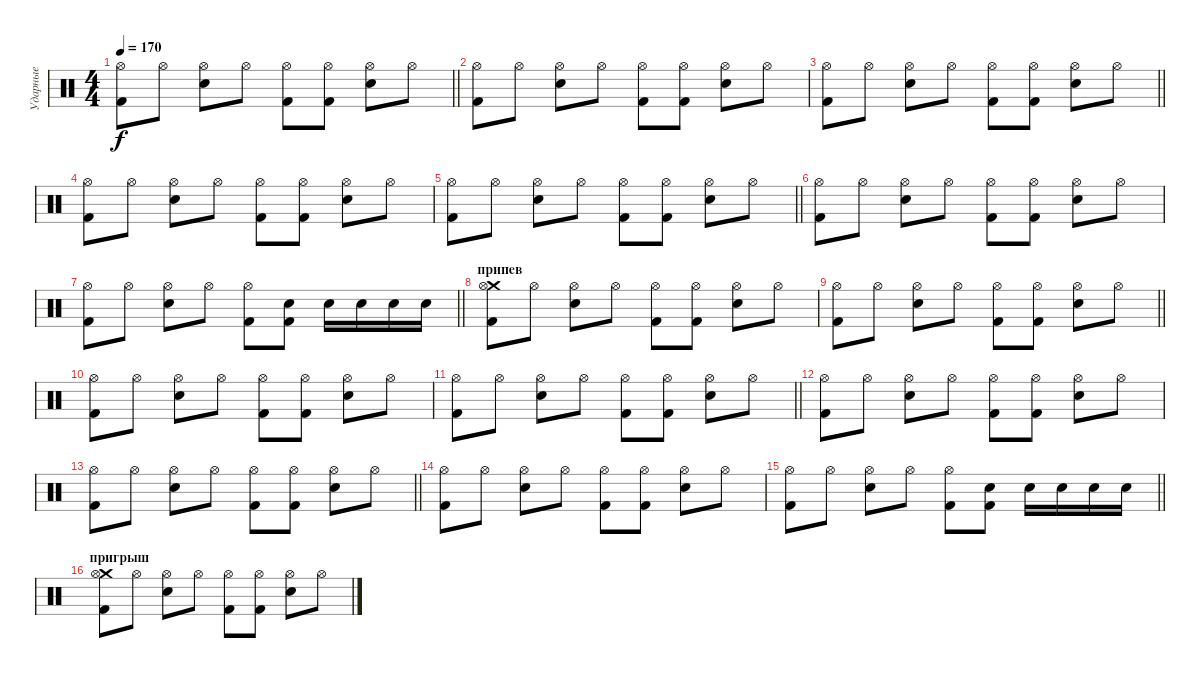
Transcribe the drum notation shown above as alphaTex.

\track ("Ударные" "Ударные") {instrument percussion}
\staff {score}
\articulation defaults
\ts (4 4)
\tempo 170
\clef neutral
\barLineRight lightlight
\ks c
("Hi-Hat (open)" "Kick (hit) 2").8{dy f} "Hi-Hat (open)".8 ("Hi-Hat (open)" "Electric Snare (hit)").8 "Hi-Hat (open)".8 ("Hi-Hat (open)" "Kick (hit) 2").8 ("Hi-Hat (open)" "Kick (hit) 2").8 ("Hi-Hat (open)" "Electric Snare (hit)").8 "Hi-Hat (open)".8 |
("Hi-Hat (open)" "Kick (hit) 2").8 "Hi-Hat (open)".8 ("Hi-Hat (open)" "Electric Snare (hit)").8 "Hi-Hat (open)".8 ("Hi-Hat (open)" "Kick (hit) 2").8 ("Hi-Hat (open)" "Kick (hit) 2").8 ("Hi-Hat (open)" "Electric Snare (hit)").8 "Hi-Hat (open)".8 |
\barLineRight lightlight
("Hi-Hat (open)" "Kick (hit) 2").8 "Hi-Hat (open)".8 ("Hi-Hat (open)" "Electric Snare (hit)").8 "Hi-Hat (open)".8 ("Hi-Hat (open)" "Kick (hit) 2").8 ("Hi-Hat (open)" "Kick (hit) 2").8 ("Hi-Hat (open)" "Electric Snare (hit)").8 "Hi-Hat (open)".8 |
("Hi-Hat (open)" "Kick (hit) 2").8 "Hi-Hat (open)".8 ("Hi-Hat (open)" "Electric Snare (hit)").8 "Hi-Hat (open)".8 ("Hi-Hat (open)" "Kick (hit) 2").8 ("Hi-Hat (open)" "Kick (hit) 2").8 ("Hi-Hat (open)" "Electric Snare (hit)").8 "Hi-Hat (open)".8 |
\barLineRight lightlight
("Hi-Hat (open)" "Kick (hit) 2").8 "Hi-Hat (open)".8 ("Hi-Hat (open)" "Electric Snare (hit)").8 "Hi-Hat (open)".8 ("Hi-Hat (open)" "Kick (hit) 2").8 ("Hi-Hat (open)" "Kick (hit) 2").8 ("Hi-Hat (open)" "Electric Snare (hit)").8 "Hi-Hat (open)".8 |
("Hi-Hat (open)" "Kick (hit) 2").8 "Hi-Hat (open)".8 ("Hi-Hat (open)" "Electric Snare (hit)").8 "Hi-Hat (open)".8 ("Hi-Hat (open)" "Kick (hit) 2").8 ("Hi-Hat (open)" "Kick (hit) 2").8 ("Hi-Hat (open)" "Electric Snare (hit)").8 "Hi-Hat (open)".8 |
\barLineRight lightlight
("Hi-Hat (open)" "Kick (hit) 2").8 "Hi-Hat (open)".8 ("Hi-Hat (open)" "Electric Snare (hit)").8 "Hi-Hat (open)".8 ("Hi-Hat (open)" "Kick (hit) 2").8 ("Electric Snare (hit)" "Kick (hit) 2").8 "Electric Snare (hit)".16 "Electric Snare (hit)".16 "Electric Snare (hit)".16 "Electric Snare (hit)".16 |
\section ("" "припев")
("Crash medium (hit)" "Hi-Hat (open)" "Kick (hit) 2").8 "Hi-Hat (open)".8 ("Hi-Hat (open)" "Electric Snare (hit)").8 "Hi-Hat (open)".8 ("Hi-Hat (open)" "Kick (hit) 2").8 ("Hi-Hat (open)" "Kick (hit) 2").8 ("Hi-Hat (open)" "Electric Snare (hit)").8 "Hi-Hat (open)".8 |
\barLineRight lightlight
("Hi-Hat (open)" "Kick (hit) 2").8 "Hi-Hat (open)".8 ("Hi-Hat (open)" "Electric Snare (hit)").8 "Hi-Hat (open)".8 ("Hi-Hat (open)" "Kick (hit) 2").8 ("Hi-Hat (open)" "Kick (hit) 2").8 ("Hi-Hat (open)" "Electric Snare (hit)").8 "Hi-Hat (open)".8 |
("Hi-Hat (open)" "Kick (hit) 2").8 "Hi-Hat (open)".8 ("Hi-Hat (open)" "Electric Snare (hit)").8 "Hi-Hat (open)".8 ("Hi-Hat (open)" "Kick (hit) 2").8 ("Hi-Hat (open)" "Kick (hit) 2").8 ("Hi-Hat (open)" "Electric Snare (hit)").8 "Hi-Hat (open)".8 |
\barLineRight lightlight
("Hi-Hat (open)" "Kick (hit) 2").8 "Hi-Hat (open)".8 ("Hi-Hat (open)" "Electric Snare (hit)").8 "Hi-Hat (open)".8 ("Hi-Hat (open)" "Kick (hit) 2").8 ("Hi-Hat (open)" "Kick (hit) 2").8 ("Hi-Hat (open)" "Electric Snare (hit)").8 "Hi-Hat (open)".8 |
("Hi-Hat (open)" "Kick (hit) 2").8 "Hi-Hat (open)".8 ("Hi-Hat (open)" "Electric Snare (hit)").8 "Hi-Hat (open)".8 ("Hi-Hat (open)" "Kick (hit) 2").8 ("Hi-Hat (open)" "Kick (hit) 2").8 ("Hi-Hat (open)" "Electric Snare (hit)").8 "Hi-Hat (open)".8 |
\barLineRight lightlight
("Hi-Hat (open)" "Kick (hit) 2").8 "Hi-Hat (open)".8 ("Hi-Hat (open)" "Electric Snare (hit)").8 "Hi-Hat (open)".8 ("Hi-Hat (open)" "Kick (hit) 2").8 ("Hi-Hat (open)" "Kick (hit) 2").8 ("Hi-Hat (open)" "Electric Snare (hit)").8 "Hi-Hat (open)".8 |
("Hi-Hat (open)" "Kick (hit) 2").8 "Hi-Hat (open)".8 ("Hi-Hat (open)" "Electric Snare (hit)").8 "Hi-Hat (open)".8 ("Hi-Hat (open)" "Kick (hit) 2").8 ("Hi-Hat (open)" "Kick (hit) 2").8 ("Hi-Hat (open)" "Electric Snare (hit)").8 "Hi-Hat (open)".8 |
\barLineRight lightlight
("Hi-Hat (open)" "Kick (hit) 2").8 "Hi-Hat (open)".8 ("Hi-Hat (open)" "Electric Snare (hit)").8 "Hi-Hat (open)".8 ("Hi-Hat (open)" "Kick (hit) 2").8 ("Electric Snare (hit)" "Kick (hit) 2").8 "Electric Snare (hit)".16 "Electric Snare (hit)".16 "Electric Snare (hit)".16 "Electric Snare (hit)".16 |
\section ("" "пригрыш")
("Crash medium (hit)" "Hi-Hat (open)" "Kick (hit) 2").8 "Hi-Hat (open)".8 ("Hi-Hat (open)" "Electric Snare (hit)").8 "Hi-Hat (open)".8 ("Hi-Hat (open)" "Kick (hit) 2").8 ("Hi-Hat (open)" "Kick (hit) 2").8 ("Hi-Hat (open)" "Electric Snare (hit)").8 "Hi-Hat (open)".8
